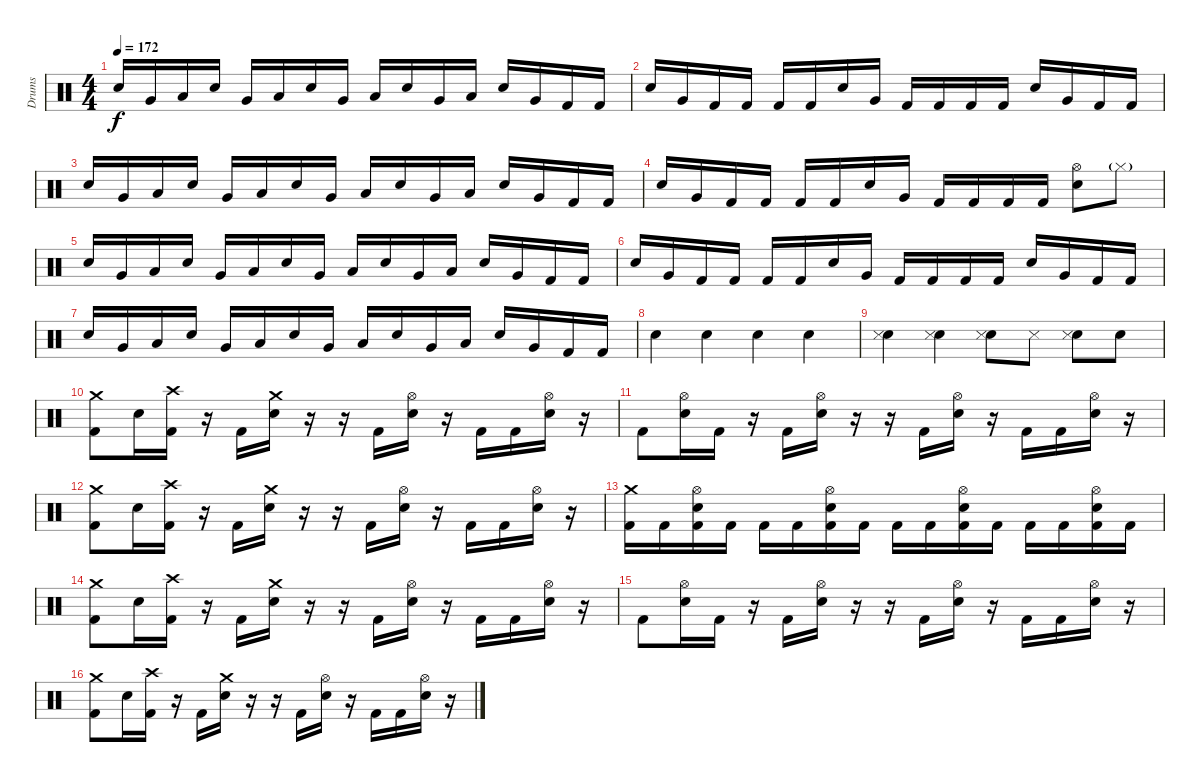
\track ("Drums" "Drums") {instrument percussion}
\staff {score}
\articulation defaults
\ts (4 4)
\tempo 172
\clef neutral
\ks c "Electric Snare (hit)".16{dy f} "Very Low Tom (hit)".16 "Low Floor Tom (hit)".16 "Electric Snare (hit)".16 "Very Low Tom (hit)".16 "Low Floor Tom (hit)".16 "Electric Snare (hit)".16 "Very Low Tom (hit)".16 "Low Floor Tom (hit)".16 "Electric Snare (hit)".16 "Very Low Tom (hit)".16 "Low Floor Tom (hit)".16 "Electric Snare (hit)".16 "Very Low Tom (hit)".16 "Kick (hit) 2".16 "Kick (hit) 2".16
|
"Electric Snare (hit)".16 "Very Low Tom (hit)".16 "Kick (hit) 2".16 "Kick (hit) 2".16 "Kick (hit) 2".16 "Kick (hit) 2".16 "Electric Snare (hit)".16 "Very Low Tom (hit)".16 "Kick (hit) 2".16 "Kick (hit) 2".16 "Kick (hit) 2".16 "Kick (hit) 2".16 "Electric Snare (hit)".16 "Very Low Tom (hit)".16 "Kick (hit) 2".16 "Kick (hit) 2".16 |
"Electric Snare (hit)".16 "Very Low Tom (hit)".16 "Low Floor Tom (hit)".16 "Electric Snare (hit)".16 "Very Low Tom (hit)".16 "Low Floor Tom (hit)".16 "Electric Snare (hit)".16 "Very Low Tom (hit)".16 "Low Floor Tom (hit)".16 "Electric Snare (hit)".16 "Very Low Tom (hit)".16 "Low Floor Tom (hit)".16 "Electric Snare (hit)".16 "Very Low Tom (hit)".16 "Kick (hit) 2".16 "Kick (hit) 2".16 |
"Electric Snare (hit)".16 "Very Low Tom (hit)".16 "Kick (hit) 2".16 "Kick (hit) 2".16 "Kick (hit) 2".16 "Kick (hit) 2".16 "Electric Snare (hit)".16 "Very Low Tom (hit)".16 "Kick (hit) 2".16 "Kick (hit) 2".16 "Kick (hit) 2".16 "Kick (hit) 2".16 ("Hi-Hat (open)" "Electric Snare (hit)").8 "Hi-Hat (closed)"{g}.8 |
"Electric Snare (hit)".16 "Very Low Tom (hit)".16 "Low Floor Tom (hit)".16 "Electric Snare (hit)".16 "Very Low Tom (hit)".16 "Low Floor Tom (hit)".16 "Electric Snare (hit)".16 "Very Low Tom (hit)".16 "Low Floor Tom (hit)".16 "Electric Snare (hit)".16 "Very Low Tom (hit)".16 "Low Floor Tom (hit)".16 "Electric Snare (hit)".16 "Very Low Tom (hit)".16 "Kick (hit) 2".16 "Kick (hit) 2".16 |
"Electric Snare (hit)".16 "Very Low Tom (hit)".16 "Kick (hit) 2".16 "Kick (hit) 2".16 "Kick (hit) 2".16 "Kick (hit) 2".16 "Electric Snare (hit)".16 "Very Low Tom (hit)".16 "Kick (hit) 2".16 "Kick (hit) 2".16 "Kick (hit) 2".16 "Kick (hit) 2".16 "Electric Snare (hit)".16 "Very Low Tom (hit)".16 "Kick (hit) 2".16 "Kick (hit) 2".16 |
"Electric Snare (hit)".16 "Very Low Tom (hit)".16 "Low Floor Tom (hit)".16 "Electric Snare (hit)".16 "Very Low Tom (hit)".16 "Low Floor Tom (hit)".16 "Electric Snare (hit)".16 "Very Low Tom (hit)".16 "Low Floor Tom (hit)".16 "Electric Snare (hit)".16 "Very Low Tom (hit)".16 "Low Floor Tom (hit)".16 "Electric Snare (hit)".16 "Very Low Tom (hit)".16 "Kick (hit) 2".16 "Kick (hit) 2".16 |
"Electric Snare (hit)".4 "Metronome (bell)".4 "Metronome (bell)".4 "Metronome (bell)".4 |
("Metronome (bell)" "Snare (side stick) 3").4 ("Metronome (bell)" "Snare (side stick) 3").4 ("Metronome (bell)" "Snare (side stick) 3").8 "Snare (side stick) 3".8 ("Metronome (bell)" "Snare (side stick) 3").8 "Electric Snare (hit)".8 |
("Crash medium (hit)" "Kick (hit) 2").8 "Electric Snare (hit)".16 ("Crash high (hit)" "Kick (hit) 2").16 r.16 "Kick (hit) 2".16 ("Crash medium (hit)" "Electric Snare (hit)").16 r.16 r.16 "Kick (hit) 2".16 ("Hi-Hat (open)" "Electric Snare (hit)").16 r.16 "Kick (hit) 2".16 "Kick (hit) 2".16 ("Hi-Hat (open)" "Electric Snare (hit)").16 r.16 |
"Kick (hit) 2".8 ("Hi-Hat (open)" "Electric Snare (hit)").16 "Kick (hit) 2".16 r.16 "Kick (hit) 2".16 ("Hi-Hat (open)" "Electric Snare (hit)").16 r.16 r.16 "Kick (hit) 2".16 ("Hi-Hat (open)" "Electric Snare (hit)").16 r.16 "Kick (hit) 2".16 "Kick (hit) 2".16 ("Hi-Hat (open)" "Electric Snare (hit)").16 r.16 |
("Crash medium (hit)" "Kick (hit) 2").8 "Electric Snare (hit)".16 ("Crash high (hit)" "Kick (hit) 2").16 r.16 "Kick (hit) 2".16 ("Crash medium (hit)" "Electric Snare (hit)").16 r.16 r.16 "Kick (hit) 2".16 ("Hi-Hat (open)" "Electric Snare (hit)").16 r.16 "Kick (hit) 2".16 "Kick (hit) 2".16 ("Hi-Hat (open)" "Electric Snare (hit)").16 r.16 |
("Crash medium (hit)" "Kick (hit) 2").16 "Kick (hit) 2".16 ("Hi-Hat (open)" "Electric Snare (hit)" "Kick (hit) 2").16 "Kick (hit) 2".16 "Kick (hit) 2".16 "Kick (hit) 2".16 ("Hi-Hat (open)" "Electric Snare (hit)" "Kick (hit) 2").16 "Kick (hit) 2".16 "Kick (hit) 2".16 "Kick (hit) 2".16 ("Hi-Hat (open)" "Electric Snare (hit)" "Kick (hit) 2").16 "Kick (hit) 2".16 "Kick (hit) 2".16 "Kick (hit) 2".16 ("Hi-Hat (open)" "Electric Snare (hit)" "Kick (hit) 2").16 "Kick (hit) 2".16 |
("Crash medium (hit)" "Kick (hit) 2").8 "Electric Snare (hit)".16 ("Crash high (hit)" "Kick (hit) 2").16 r.16 "Kick (hit) 2".16 ("Crash medium (hit)" "Electric Snare (hit)").16 r.16 r.16 "Kick (hit) 2".16 ("Hi-Hat (open)" "Electric Snare (hit)").16 r.16 "Kick (hit) 2".16 "Kick (hit) 2".16 ("Hi-Hat (open)" "Electric Snare (hit)").16 r.16 |
"Kick (hit) 2".8 ("Hi-Hat (open)" "Electric Snare (hit)").16 "Kick (hit) 2".16 r.16 "Kick (hit) 2".16 ("Hi-Hat (open)" "Electric Snare (hit)").16 r.16 r.16 "Kick (hit) 2".16 ("Hi-Hat (open)" "Electric Snare (hit)").16 r.16 "Kick (hit) 2".16 "Kick (hit) 2".16 ("Hi-Hat (open)" "Electric Snare (hit)").16 r.16 |
("Crash medium (hit)" "Kick (hit) 2").8 "Electric Snare (hit)".16 ("Crash high (hit)" "Kick (hit) 2").16 r.16 "Kick (hit) 2".16 ("Crash medium (hit)" "Electric Snare (hit)").16 r.16 r.16 "Kick (hit) 2".16 ("Hi-Hat (open)" "Electric Snare (hit)").16 r.16 "Kick (hit) 2".16 "Kick (hit) 2".16 ("Hi-Hat (open)" "Electric Snare (hit)").16 r.16
